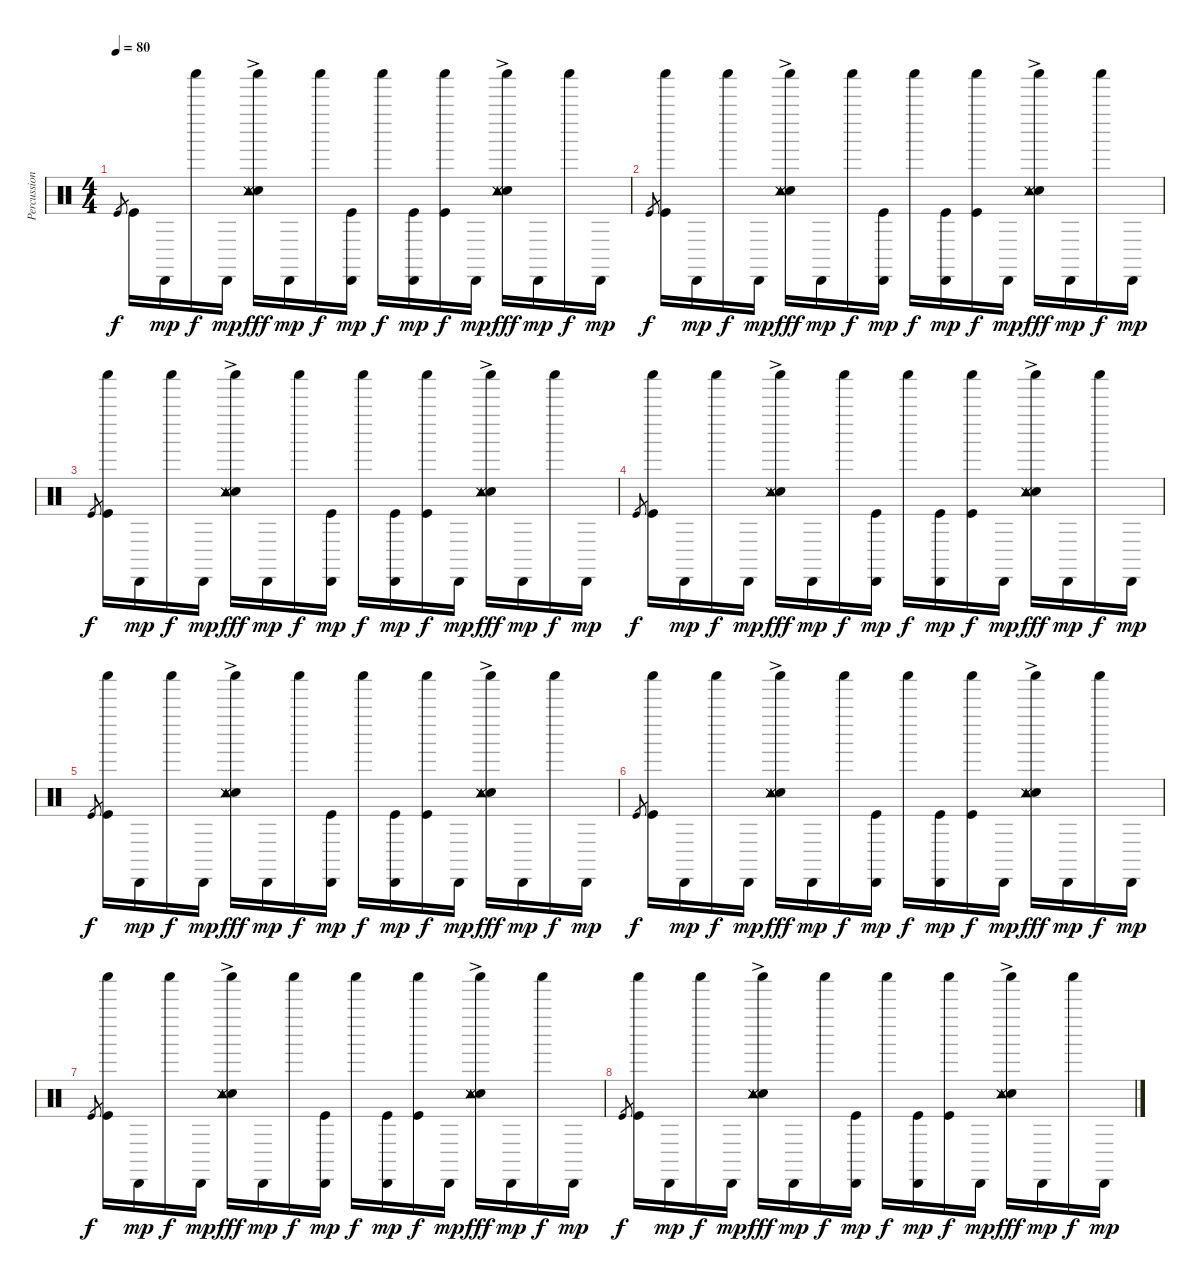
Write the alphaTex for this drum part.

\track ("Percussions" "Percussion") {instrument percussion}
\staff {score}
\articulation defaults
\ts (4 4)
\tempo 80
\clef neutral
\ks c "Kick (hit)".8{gr dy f} "Kick (hit)".16 "Cabasa (hit)".16{dy mp} "Shaker (hit)".16{dy f} "Cabasa (hit)".16{dy mp}
("Shaker (hit)" "Electric Snare (hit)" "Tambourine (hit)"{ac} "Snare (side stick) 3" "Metronome (hit)").16{dy fff} "Cabasa (hit)".16{dy mp} "Shaker (hit)".16{dy f} ("Cabasa (hit)" "Kick (hit)").16{dy mp} "Shaker (hit)".16{dy f} ("Cabasa (hit)" "Kick (hit)").16{dy mp} ("Shaker (hit)" "Kick (hit)").16{dy f} "Cabasa (hit)".16{dy mp} ("Shaker (hit)" "Electric Snare (hit)" "Tambourine (hit)"{ac} "Snare (side stick) 3" "Metronome (hit)").16{dy fff} "Cabasa (hit)".16{dy mp} "Shaker (hit)".16{dy f} "Cabasa (hit)".16{dy mp} |
"Kick (hit)".8{gr dy f} ("Shaker (hit)" "Kick (hit)").16 "Cabasa (hit)".16{dy mp} "Shaker (hit)".16{dy f} "Cabasa (hit)".16{dy mp} ("Shaker (hit)" "Electric Snare (hit)" "Tambourine (hit)"{ac} "Snare (side stick) 3" "Metronome (hit)").16{dy fff} "Cabasa (hit)".16{dy mp} "Shaker (hit)".16{dy f} ("Cabasa (hit)" "Kick (hit)").16{dy mp} "Shaker (hit)".16{dy f} ("Cabasa (hit)" "Kick (hit)").16{dy mp} ("Shaker (hit)" "Kick (hit)").16{dy f} "Cabasa (hit)".16{dy mp} ("Shaker (hit)" "Electric Snare (hit)" "Tambourine (hit)"{ac} "Snare (side stick) 3" "Metronome (hit)").16{dy fff} "Cabasa (hit)".16{dy mp} "Shaker (hit)".16{dy f} "Cabasa (hit)".16{dy mp} |
"Kick (hit)".8{gr dy f} ("Shaker (hit)" "Kick (hit)").16 "Cabasa (hit)".16{dy mp} "Shaker (hit)".16{dy f} "Cabasa (hit)".16{dy mp} ("Shaker (hit)" "Electric Snare (hit)" "Tambourine (hit)"{ac} "Snare (side stick) 3" "Metronome (hit)").16{dy fff} "Cabasa (hit)".16{dy mp} "Shaker (hit)".16{dy f} ("Cabasa (hit)" "Kick (hit)").16{dy mp} "Shaker (hit)".16{dy f} ("Cabasa (hit)" "Kick (hit)").16{dy mp} ("Shaker (hit)" "Kick (hit)").16{dy f} "Cabasa (hit)".16{dy mp} ("Shaker (hit)" "Electric Snare (hit)" "Tambourine (hit)"{ac} "Snare (side stick) 3" "Metronome (hit)").16{dy fff} "Cabasa (hit)".16{dy mp} "Shaker (hit)".16{dy f} "Cabasa (hit)".16{dy mp} |
"Kick (hit)".8{gr dy f} ("Shaker (hit)" "Kick (hit)").16 "Cabasa (hit)".16{dy mp} "Shaker (hit)".16{dy f} "Cabasa (hit)".16{dy mp} ("Shaker (hit)" "Electric Snare (hit)" "Tambourine (hit)"{ac} "Snare (side stick) 3" "Metronome (hit)").16{dy fff} "Cabasa (hit)".16{dy mp} "Shaker (hit)".16{dy f} ("Cabasa (hit)" "Kick (hit)").16{dy mp} "Shaker (hit)".16{dy f} ("Cabasa (hit)" "Kick (hit)").16{dy mp} ("Shaker (hit)" "Kick (hit)").16{dy f} "Cabasa (hit)".16{dy mp} ("Shaker (hit)" "Electric Snare (hit)" "Tambourine (hit)"{ac} "Snare (side stick) 3" "Metronome (hit)").16{dy fff} "Cabasa (hit)".16{dy mp} "Shaker (hit)".16{dy f} "Cabasa (hit)".16{dy mp} |
"Kick (hit)".8{gr dy f} ("Shaker (hit)" "Kick (hit)").16 "Cabasa (hit)".16{dy mp} "Shaker (hit)".16{dy f} "Cabasa (hit)".16{dy mp} ("Shaker (hit)" "Electric Snare (hit)" "Tambourine (hit)"{ac} "Snare (side stick) 3" "Metronome (hit)").16{dy fff} "Cabasa (hit)".16{dy mp} "Shaker (hit)".16{dy f} ("Cabasa (hit)" "Kick (hit)").16{dy mp} "Shaker (hit)".16{dy f} ("Cabasa (hit)" "Kick (hit)").16{dy mp} ("Shaker (hit)" "Kick (hit)").16{dy f} "Cabasa (hit)".16{dy mp} ("Shaker (hit)" "Electric Snare (hit)" "Tambourine (hit)"{ac} "Snare (side stick) 3" "Metronome (hit)").16{dy fff} "Cabasa (hit)".16{dy mp} "Shaker (hit)".16{dy f} "Cabasa (hit)".16{dy mp} |
"Kick (hit)".8{gr dy f} ("Shaker (hit)" "Kick (hit)").16 "Cabasa (hit)".16{dy mp} "Shaker (hit)".16{dy f} "Cabasa (hit)".16{dy mp} ("Shaker (hit)" "Electric Snare (hit)" "Tambourine (hit)"{ac} "Snare (side stick) 3" "Metronome (hit)").16{dy fff} "Cabasa (hit)".16{dy mp} "Shaker (hit)".16{dy f} ("Cabasa (hit)" "Kick (hit)").16{dy mp} "Shaker (hit)".16{dy f} ("Cabasa (hit)" "Kick (hit)").16{dy mp} ("Shaker (hit)" "Kick (hit)").16{dy f} "Cabasa (hit)".16{dy mp} ("Shaker (hit)" "Electric Snare (hit)" "Tambourine (hit)"{ac} "Snare (side stick) 3" "Metronome (hit)").16{dy fff} "Cabasa (hit)".16{dy mp} "Shaker (hit)".16{dy f} "Cabasa (hit)".16{dy mp} |
"Kick (hit)".8{gr dy f} ("Shaker (hit)" "Kick (hit)").16 "Cabasa (hit)".16{dy mp} "Shaker (hit)".16{dy f} "Cabasa (hit)".16{dy mp} ("Shaker (hit)" "Electric Snare (hit)" "Tambourine (hit)"{ac} "Snare (side stick) 3" "Metronome (hit)").16{dy fff} "Cabasa (hit)".16{dy mp} "Shaker (hit)".16{dy f} ("Cabasa (hit)" "Kick (hit)").16{dy mp} "Shaker (hit)".16{dy f} ("Cabasa (hit)" "Kick (hit)").16{dy mp} ("Shaker (hit)" "Kick (hit)").16{dy f} "Cabasa (hit)".16{dy mp} ("Shaker (hit)" "Electric Snare (hit)" "Tambourine (hit)"{ac} "Snare (side stick) 3" "Metronome (hit)").16{dy fff} "Cabasa (hit)".16{dy mp} "Shaker (hit)".16{dy f} "Cabasa (hit)".16{dy mp} |
"Kick (hit)".8{gr dy f} ("Shaker (hit)" "Kick (hit)").16 "Cabasa (hit)".16{dy mp} "Shaker (hit)".16{dy f} "Cabasa (hit)".16{dy mp} ("Shaker (hit)" "Electric Snare (hit)" "Tambourine (hit)"{ac} "Snare (side stick) 3" "Metronome (hit)").16{dy fff} "Cabasa (hit)".16{dy mp} "Shaker (hit)".16{dy f} ("Cabasa (hit)" "Kick (hit)").16{dy mp} "Shaker (hit)".16{dy f} ("Cabasa (hit)" "Kick (hit)").16{dy mp} ("Shaker (hit)" "Kick (hit)").16{dy f} "Cabasa (hit)".16{dy mp} ("Shaker (hit)" "Electric Snare (hit)" "Tambourine (hit)"{ac} "Snare (side stick) 3" "Metronome (hit)").16{dy fff} "Cabasa (hit)".16{dy mp} "Shaker (hit)".16{dy f} "Cabasa (hit)".16{dy mp}
